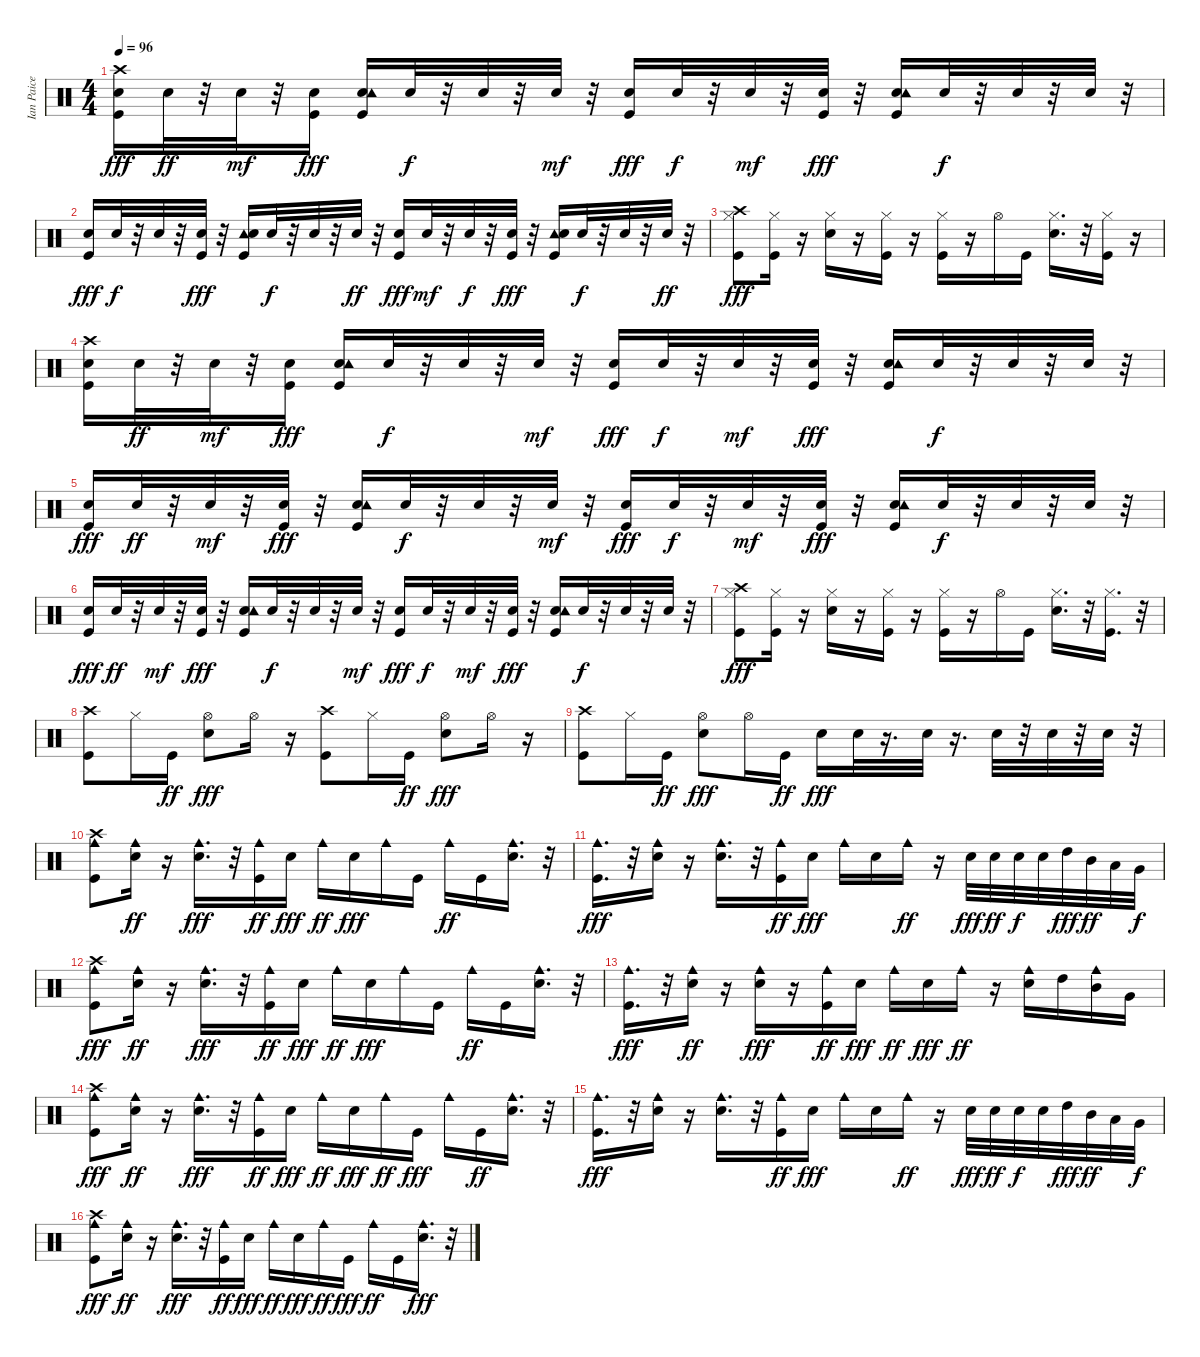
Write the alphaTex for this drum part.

\track ("Ian Paice" "Ian Paice") {instrument percussion}
\staff {score}
\articulation defaults
\ts (4 4)
\tempo 96
\clef neutral
\ks c
("Crash high (hit)" "Kick (hit)" "Snare (hit) 2").16{dy fff} "Snare (hit) 2".32{dy ff} r.32 "Snare (hit) 2".32{dy mf} r.32 ("Snare (hit) 2" "Kick (hit)").16{dy fff} ("Kick (hit)" "Snare (hit) 2" "Tambourine (hit)").16 "Snare (hit) 2".32{dy f} r.32 "Snare (hit) 2".32 r.32 "Snare (hit) 2".32{dy mf} r.32 ("Snare (hit) 2" "Kick (hit)").16{dy fff} "Snare (hit) 2".32{dy f} r.32 "Snare (hit) 2".32{dy mf} r.32 ("Snare (hit) 2" "Kick (hit)").32{dy fff} r.32 ("Kick (hit)" "Snare (hit) 2" "Tambourine (hit)").16 "Snare (hit) 2".32{dy f} r.32 "Snare (hit) 2".32 r.32 "Snare (hit) 2".32 r.32 |
("Kick (hit)" "Snare (hit) 2").16{dy fff} "Snare (hit) 2".32{dy f} r.32 "Snare (hit) 2".32 r.32 ("Snare (hit) 2" "Kick (hit)").32{dy fff} r.32 ("Tambourine (hit)" "Kick (hit)" "Snare (hit) 2").16 "Snare (hit) 2".32{dy f} r.32 "Snare (hit) 2".32 r.32 "Snare (hit) 2".32{dy ff} r.32 ("Kick (hit)" "Snare (hit) 2").16{dy fff} "Snare (hit) 2".32{dy mf} r.32 "Snare (hit) 2".32{dy f} r.32 ("Snare (hit) 2" "Kick (hit)").32{dy fff} r.32 ("Tambourine (hit)" "Kick (hit)" "Snare (hit) 2").16 "Snare (hit) 2".32{dy f} r.32 "Snare (hit) 2".32 r.32 "Snare (hit) 2".32{dy ff} r.32 |
("Kick (hit)" "Hi-Hat (closed)" "Crash high (hit)").8{dy fff} ("Hi-Hat (closed)" "Kick (hit)").16 r.16 ("Hi-Hat (closed)" "Snare (hit) 2").16 r.16 ("Hi-Hat (closed)" "Kick (hit)").16 r.16 ("Hi-Hat (closed)" "Kick (hit)").16 r.16 "Hi-Hat (open)".16 "Kick (hit)".16 ("Hi-Hat (closed)" "Snare (hit) 2").16{d} r.32 ("Hi-Hat (closed)" "Kick (hit)").16 r.16 |
("Crash high (hit)" "Snare (hit) 2" "Kick (hit)").16 "Snare (hit) 2".32{dy ff} r.32 "Snare (hit) 2".32{dy mf} r.32 ("Snare (hit) 2" "Kick (hit)").16{dy fff} ("Kick (hit)" "Snare (hit) 2" "Tambourine (hit)").16 "Snare (hit) 2".32{dy f} r.32 "Snare (hit) 2".32 r.32 "Snare (hit) 2".32{dy mf} r.32 ("Snare (hit) 2" "Kick (hit)").16{dy fff} "Snare (hit) 2".32{dy f} r.32 "Snare (hit) 2".32{dy mf} r.32 ("Snare (hit) 2" "Kick (hit)").32{dy fff} r.32 ("Kick (hit)" "Snare (hit) 2" "Tambourine (hit)").16 "Snare (hit) 2".32{dy f} r.32 "Snare (hit) 2".32 r.32 "Snare (hit) 2".32 r.32 |
("Kick (hit)" "Snare (hit) 2").16{dy fff} "Snare (hit) 2".32{dy ff} r.32 "Snare (hit) 2".32{dy mf} r.32 ("Snare (hit) 2" "Kick (hit)").32{dy fff} r.32 ("Kick (hit)" "Snare (hit) 2" "Tambourine (hit)").16 "Snare (hit) 2".32{dy f} r.32 "Snare (hit) 2".32 r.32 "Snare (hit) 2".32{dy mf} r.32 ("Kick (hit)" "Snare (hit) 2").16{dy fff} "Snare (hit) 2".32{dy f} r.32 "Snare (hit) 2".32{dy mf} r.32 ("Snare (hit) 2" "Kick (hit)").32{dy fff} r.32 ("Kick (hit)" "Snare (hit) 2" "Tambourine (hit)").16 "Snare (hit) 2".32{dy f} r.32 "Snare (hit) 2".32 r.32 "Snare (hit) 2".32 r.32 |
("Kick (hit)" "Snare (hit) 2").16{dy fff} "Snare (hit) 2".32{dy ff} r.32 "Snare (hit) 2".32{dy mf} r.32 ("Snare (hit) 2" "Kick (hit)").32{dy fff} r.32 ("Kick (hit)" "Snare (hit) 2" "Tambourine (hit)").16 "Snare (hit) 2".32{dy f} r.32 "Snare (hit) 2".32 r.32 "Snare (hit) 2".32{dy mf} r.32 ("Kick (hit)" "Snare (hit) 2").16{dy fff} "Snare (hit) 2".32{dy f} r.32 "Snare (hit) 2".32{dy mf} r.32 ("Snare (hit) 2" "Kick (hit)").32{dy fff} r.32 ("Kick (hit)" "Snare (hit) 2" "Tambourine (hit)").16 "Snare (hit) 2".32{dy f} r.32 "Snare (hit) 2".32 r.32 "Snare (hit) 2".32 r.32 |
("Kick (hit)" "Hi-Hat (closed)" "Crash high (hit)").8{dy fff} ("Hi-Hat (closed)" "Kick (hit)").16 r.16 ("Hi-Hat (closed)" "Snare (hit) 2").16 r.16 ("Hi-Hat (closed)" "Kick (hit)").16 r.16 ("Hi-Hat (closed)" "Kick (hit)").16 r.16 "Hi-Hat (open)".16 "Kick (hit)".16 ("Hi-Hat (closed)" "Snare (hit) 2").16{d} r.32 ("Hi-Hat (closed)" "Kick (hit)").16{d} r.32 |
("Kick (hit)" "Crash high (hit)").8 "Hi-Hat (closed)".16 "Kick (hit)".16{dy ff} ("Snare (hit) 2" "Hi-Hat (open)").8{dy fff} "Hi-Hat (open)".16 r.16 ("Kick (hit)" "Crash high (hit)").8 "Hi-Hat (closed)".16 "Kick (hit)".16{dy ff} ("Snare (hit) 2" "Hi-Hat (open)").8{dy fff} "Hi-Hat (open)".16 r.16 |
("Crash high (hit)" "Kick (hit)").8 "Hi-Hat (closed)".16 "Kick (hit)".16{dy ff} ("Hi-Hat (open)" "Snare (hit) 2").8{dy fff} "Hi-Hat (open)".16 "Kick (hit)".16{dy ff} "Snare (hit) 2".16{dy fff} "Snare (hit) 2".32 r.16{d} "Snare (hit) 2".32 r.16{d} "Snare (hit) 2".32 r.32 "Snare (hit) 2".32 r.32 "Snare (hit) 2".32 r.32 |
("Cowbell medium (hit)" "Kick (hit)" "Crash high (hit)").8 ("Snare (hit) 2" "Cowbell medium (hit)").16{dy ff} r.16 ("Cowbell medium (hit)" "Snare (hit) 2").16{d dy fff} r.32 ("Kick (hit)" "Cowbell medium (hit)").16{dy ff} "Snare (hit) 2".16{dy fff} "Cowbell medium (hit)".16{dy ff} "Snare (hit) 2".16{dy fff} "Cowbell medium (hit)".16 "Kick (hit)".16 "Cowbell medium (hit)".16{dy ff} "Kick (hit)".16 ("Snare (hit) 2" "Cowbell medium (hit)").16{d} r.32 |
("Cowbell medium (hit)" "Kick (hit)").16{d dy fff} r.32 ("Snare (hit) 2" "Cowbell medium (hit)").16 r.16 ("Cowbell medium (hit)" "Snare (hit) 2").16{d} r.32 ("Kick (hit)" "Cowbell medium (hit)").16{dy ff} "Snare (hit) 2".16{dy fff} "Cowbell medium (hit)".16 "Snare (hit) 2".16 "Cowbell medium (hit)".16{dy ff} r.16 "Snare (hit) 2".32{dy fff} "Snare (hit) 2".32{dy ff} "Snare (hit) 2".32{dy f} "Snare (hit) 2".32 "High Tom (hit)".32{dy fff} "Mid Tom (hit)".32{dy ff} "Low Tom (hit)".32 "Very Low Tom (hit)".32{dy f} |
("Cowbell medium (hit)" "Kick (hit)" "Crash high (hit)").8{dy fff} ("Snare (hit) 2" "Cowbell medium (hit)").16{dy ff} r.16 ("Cowbell medium (hit)" "Snare (hit) 2").16{d dy fff} r.32 ("Kick (hit)" "Cowbell medium (hit)").16{dy ff} "Snare (hit) 2".16{dy fff} "Cowbell medium (hit)".16{dy ff} "Snare (hit) 2".16{dy fff} "Cowbell medium (hit)".16 "Kick (hit)".16 "Cowbell medium (hit)".16{dy ff} "Kick (hit)".16 ("Snare (hit) 2" "Cowbell medium (hit)").16{d} r.32 |
("Cowbell medium (hit)" "Kick (hit)").16{d dy fff} r.32 ("Snare (hit) 2" "Cowbell medium (hit)").16{dy ff} r.16 ("Cowbell medium (hit)" "Snare (hit) 2").16{dy fff} r.16 ("Kick (hit)" "Cowbell medium (hit)").16{dy ff} "Snare (hit) 2".16{dy fff} "Cowbell medium (hit)".16{dy ff} "Snare (hit) 2".16{dy fff} "Cowbell medium (hit)".16{dy ff} r.16 ("Cowbell medium (hit)" "Snare (hit) 2").16 "High Tom (hit)".16 ("Cowbell medium (hit)" "Mid Tom (hit)").16 "Very Low Tom (hit)".16 |
("Cowbell medium (hit)" "Kick (hit)" "Crash high (hit)").8{dy fff} ("Snare (hit) 2" "Cowbell medium (hit)").16{dy ff} r.16 ("Cowbell medium (hit)" "Snare (hit) 2").16{d dy fff} r.32 ("Kick (hit)" "Cowbell medium (hit)").16{dy ff} "Snare (hit) 2".16{dy fff} "Cowbell medium (hit)".16{dy ff} "Snare (hit) 2".16{dy fff} "Cowbell medium (hit)".16{dy ff} "Kick (hit)".16{dy fff} "Cowbell medium (hit)".16 "Kick (hit)".16{dy ff} ("Snare (hit) 2" "Cowbell medium (hit)").16{d} r.32 |
("Cowbell medium (hit)" "Kick (hit)").16{d dy fff} r.32 ("Snare (hit) 2" "Cowbell medium (hit)").16 r.16 ("Cowbell medium (hit)" "Snare (hit) 2").16{d} r.32 ("Kick (hit)" "Cowbell medium (hit)").16{dy ff} "Snare (hit) 2".16{dy fff} "Cowbell medium (hit)".16 "Snare (hit) 2".16 "Cowbell medium (hit)".16{dy ff} r.16 "Snare (hit) 2".32{dy fff} "Snare (hit) 2".32{dy ff} "Snare (hit) 2".32{dy f} "Snare (hit) 2".32 "High Tom (hit)".32{dy fff} "Mid Tom (hit)".32{dy ff} "Low Tom (hit)".32 "Very Low Tom (hit)".32{dy f} |
("Cowbell medium (hit)" "Kick (hit)" "Crash high (hit)").8{dy fff} ("Snare (hit) 2" "Cowbell medium (hit)").16{dy ff} r.16 ("Cowbell medium (hit)" "Snare (hit) 2").16{d dy fff} r.32 ("Kick (hit)" "Cowbell medium (hit)").16{dy ff} "Snare (hit) 2".16{dy fff} "Cowbell medium (hit)".16{dy ff} "Snare (hit) 2".16{dy fff} "Cowbell medium (hit)".16{dy ff} "Kick (hit)".16{dy fff} "Cowbell medium (hit)".16{dy ff} "Kick (hit)".16 ("Snare (hit) 2" "Cowbell medium (hit)").16{d dy fff} r.32
